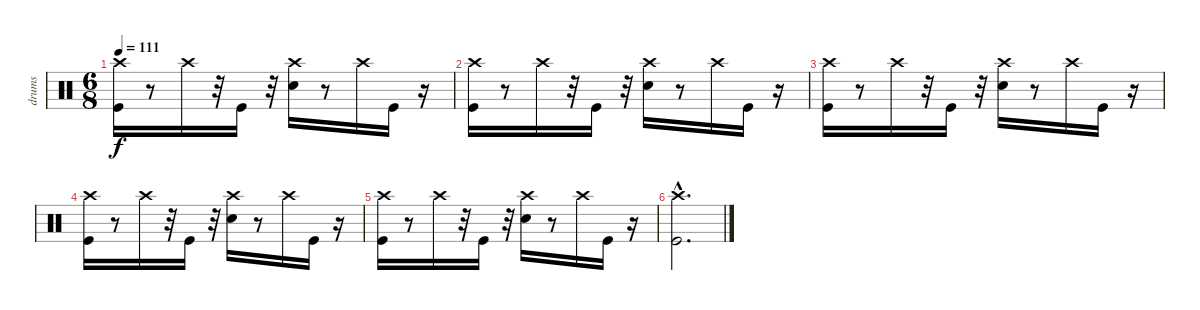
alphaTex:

\track ("drums" "drums") {instrument percussion}
\staff {score}
\articulation defaults
\ts (6 8)
\tempo 111
\clef neutral
\ks c
("Kick (hit)" "Crash high (hit)").16{dy f} r.8 "Crash high (hit)".16 r.32 "Kick (hit)".16 r.32 ("Electric Snare (hit)" "Crash high (hit)").16 r.8 "Crash high (hit)".16 "Kick (hit)".16 r.16 |
("Kick (hit)" "Crash high (hit)").16 r.8 "Crash high (hit)".16 r.32 "Kick (hit)".16 r.32 ("Electric Snare (hit)" "Crash high (hit)").16 r.8 "Crash high (hit)".16 "Kick (hit)".16 r.16 |
("Kick (hit)" "Crash high (hit)").16 r.8 "Crash high (hit)".16 r.32 "Kick (hit)".16 r.32 ("Electric Snare (hit)" "Crash high (hit)").16 r.8 "Crash high (hit)".16 "Kick (hit)".16 r.16 |
("Kick (hit)" "Crash high (hit)").16 r.8 "Crash high (hit)".16 r.32 "Kick (hit)".16 r.32 ("Electric Snare (hit)" "Crash high (hit)").16 r.8 "Crash high (hit)".16 "Kick (hit)".16 r.16 |
("Kick (hit)" "Crash high (hit)").16 r.8 "Crash high (hit)".16 r.32 "Kick (hit)".16 r.32 ("Electric Snare (hit)" "Crash high (hit)").16 r.8 "Crash high (hit)".16 "Kick (hit)".16 r.16 |
("Kick (hit)"{hac} "Crash high (hit)").2{d}
